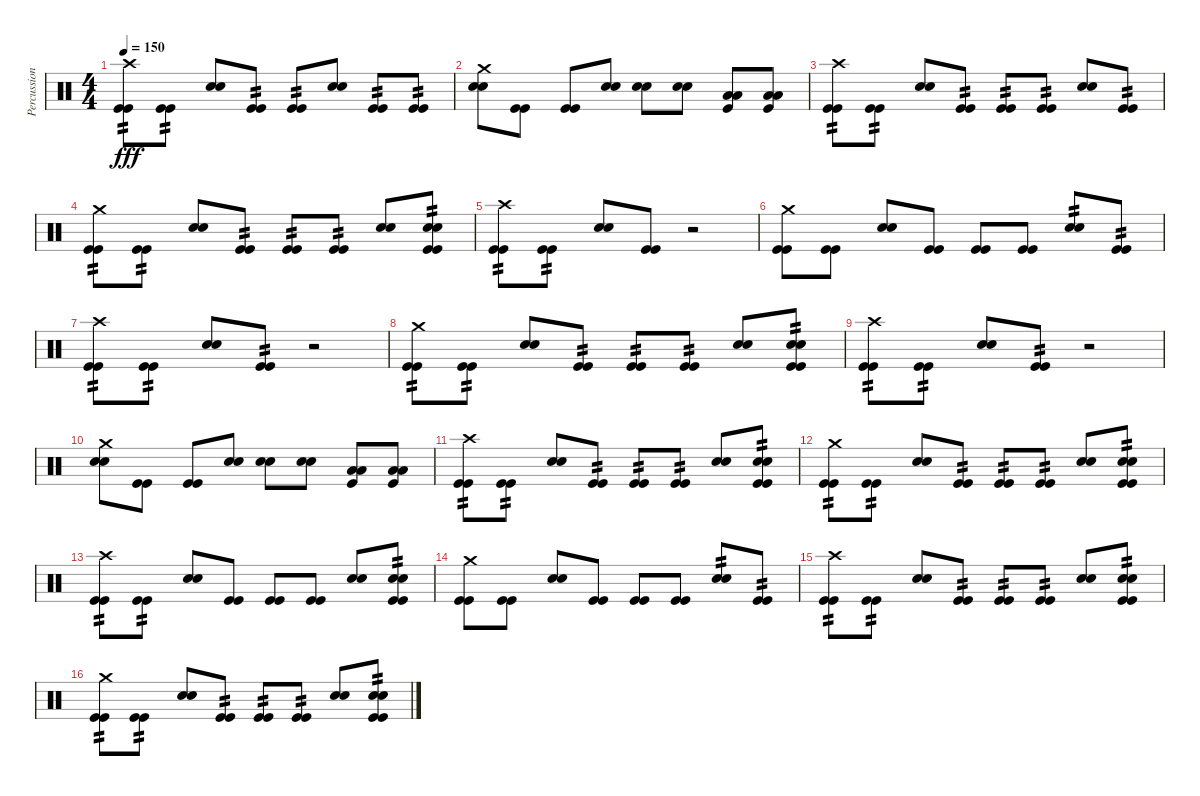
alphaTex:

\track ("Percussion" "Percussion") {instrument percussion}
\staff {score}
\articulation defaults
\ts (4 4)
\tempo 150
\clef neutral
\ks c
("Crash high (hit)" "Kick (hit)" "Kick (hit)").8{tp 2 dy fff} ("Kick (hit)" "Kick (hit)").8{tp 2} ("Snare (hit) 2" "Snare (hit) 2").8 ("Kick (hit)" "Kick (hit)").8{tp 2} ("Kick (hit)" "Kick (hit)").8{tp 2} ("Snare (hit) 2" "Snare (hit) 2").8 ("Kick (hit)" "Kick (hit)").8{tp 2} ("Kick (hit)" "Kick (hit)").8{tp 2} |
("Crash medium (hit)" "Snare (hit) 2" "Snare (hit) 2").8 ("Kick (hit)" "Kick (hit)").8 ("Kick (hit)" "Kick (hit)").8 ("Snare (hit) 2" "Snare (hit) 2").8 ("Snare (hit) 2" "Snare (hit) 2").8 ("Snare (hit) 2" "Snare (hit) 2").8 ("Low Floor Tom (hit)" "Low Floor Tom (hit)" "Kick (hit)").8 ("Low Floor Tom (hit)" "Low Floor Tom (hit)" "Kick (hit)").8 |
("Crash high (hit)" "Kick (hit)" "Kick (hit)").8{tp 2} ("Kick (hit)" "Kick (hit)").8{tp 2} ("Snare (hit) 2" "Snare (hit) 2").8 ("Kick (hit)" "Kick (hit)").8{tp 2} ("Kick (hit)" "Kick (hit)").8{tp 2} ("Kick (hit)" "Kick (hit)").8{tp 2} ("Snare (hit) 2" "Snare (hit) 2").8 ("Kick (hit)" "Kick (hit)").8{tp 2} |
("Crash medium (hit)" "Kick (hit)" "Kick (hit)").8{tp 2} ("Kick (hit)" "Kick (hit)").8{tp 2} ("Snare (hit) 2" "Snare (hit) 2").8 ("Kick (hit)" "Kick (hit)").8{tp 2} ("Kick (hit)" "Kick (hit)").8{tp 2} ("Kick (hit)" "Kick (hit)").8{tp 2} ("Snare (hit) 2" "Snare (hit) 2").8 ("Snare (hit) 2" "Snare (hit) 2" "Kick (hit)" "Kick (hit)").8{tp 2} |
("Crash high (hit)" "Kick (hit)" "Kick (hit)").8{tp 2} ("Kick (hit)" "Kick (hit)").8{tp 2} ("Snare (hit) 2" "Snare (hit) 2").8 ("Kick (hit)" "Kick (hit)").8 r.2 |
("Crash medium (hit)" "Kick (hit)" "Kick (hit)").8 ("Kick (hit)" "Kick (hit)").8 ("Snare (hit) 2" "Snare (hit) 2").8 ("Kick (hit)" "Kick (hit)").8 ("Kick (hit)" "Kick (hit)").8 ("Kick (hit)" "Kick (hit)").8 ("Snare (hit) 2" "Snare (hit) 2").8{tp 2} ("Kick (hit)" "Kick (hit)").8{tp 2} |
("Crash high (hit)" "Kick (hit)" "Kick (hit)").8{tp 2} ("Kick (hit)" "Kick (hit)").8{tp 2} ("Snare (hit) 2" "Snare (hit) 2").8 ("Kick (hit)" "Kick (hit)").8{tp 2} r.2 |
("Crash medium (hit)" "Kick (hit)" "Kick (hit)").8{tp 2} ("Kick (hit)" "Kick (hit)").8{tp 2} ("Snare (hit) 2" "Snare (hit) 2").8 ("Kick (hit)" "Kick (hit)").8{tp 2} ("Kick (hit)" "Kick (hit)").8{tp 2} ("Kick (hit)" "Kick (hit)").8{tp 2} ("Snare (hit) 2" "Snare (hit) 2").8 ("Snare (hit) 2" "Snare (hit) 2" "Kick (hit)" "Kick (hit)").8{tp 2} |
("Crash high (hit)" "Kick (hit)" "Kick (hit)").8{tp 2} ("Kick (hit)" "Kick (hit)").8{tp 2} ("Snare (hit) 2" "Snare (hit) 2").8 ("Kick (hit)" "Kick (hit)").8{tp 2} r.2 |
("Crash medium (hit)" "Snare (hit) 2" "Snare (hit) 2").8 ("Kick (hit)" "Kick (hit)").8 ("Kick (hit)" "Kick (hit)").8 ("Snare (hit) 2" "Snare (hit) 2").8 ("Snare (hit) 2" "Snare (hit) 2").8 ("Snare (hit) 2" "Snare (hit) 2").8 ("Low Floor Tom (hit)" "Low Floor Tom (hit)" "Kick (hit)").8 ("Low Floor Tom (hit)" "Low Floor Tom (hit)" "Kick (hit)").8 |
("Crash high (hit)" "Kick (hit)" "Kick (hit)").8{tp 2} ("Kick (hit)" "Kick (hit)").8{tp 2} ("Snare (hit) 2" "Snare (hit) 2").8 ("Kick (hit)" "Kick (hit)").8{tp 2} ("Kick (hit)" "Kick (hit)").8{tp 2} ("Kick (hit)" "Kick (hit)").8{tp 2} ("Snare (hit) 2" "Snare (hit) 2").8 ("Snare (hit) 2" "Snare (hit) 2" "Kick (hit)" "Kick (hit)").8{tp 2} |
("Crash medium (hit)" "Kick (hit)" "Kick (hit)").8{tp 2} ("Kick (hit)" "Kick (hit)").8{tp 2} ("Snare (hit) 2" "Snare (hit) 2").8 ("Kick (hit)" "Kick (hit)").8{tp 2} ("Kick (hit)" "Kick (hit)").8{tp 2} ("Kick (hit)" "Kick (hit)").8{tp 2} ("Snare (hit) 2" "Snare (hit) 2").8 ("Snare (hit) 2" "Snare (hit) 2" "Kick (hit)" "Kick (hit)").8{tp 2} |
("Crash high (hit)" "Kick (hit)" "Kick (hit)").8{tp 2} ("Kick (hit)" "Kick (hit)").8{tp 2} ("Snare (hit) 2" "Snare (hit) 2").8 ("Kick (hit)" "Kick (hit)").8 ("Kick (hit)" "Kick (hit)").8 ("Kick (hit)" "Kick (hit)").8 ("Snare (hit) 2" "Snare (hit) 2").8 ("Snare (hit) 2" "Snare (hit) 2" "Kick (hit)" "Kick (hit)").8{tp 2} |
("Crash medium (hit)" "Kick (hit)" "Kick (hit)").8 ("Kick (hit)" "Kick (hit)").8 ("Snare (hit) 2" "Snare (hit) 2").8 ("Kick (hit)" "Kick (hit)").8 ("Kick (hit)" "Kick (hit)").8 ("Kick (hit)" "Kick (hit)").8 ("Snare (hit) 2" "Snare (hit) 2").8{tp 2} ("Kick (hit)" "Kick (hit)").8{tp 2} |
("Crash high (hit)" "Kick (hit)" "Kick (hit)").8{tp 2} ("Kick (hit)" "Kick (hit)").8{tp 2} ("Snare (hit) 2" "Snare (hit) 2").8 ("Kick (hit)" "Kick (hit)").8{tp 2} ("Kick (hit)" "Kick (hit)").8{tp 2} ("Kick (hit)" "Kick (hit)").8{tp 2} ("Snare (hit) 2" "Snare (hit) 2").8 ("Snare (hit) 2" "Snare (hit) 2" "Kick (hit)" "Kick (hit)").8{tp 2} |
("Crash medium (hit)" "Kick (hit)" "Kick (hit)").8{tp 2} ("Kick (hit)" "Kick (hit)").8{tp 2} ("Snare (hit) 2" "Snare (hit) 2").8 ("Kick (hit)" "Kick (hit)").8{tp 2} ("Kick (hit)" "Kick (hit)").8{tp 2} ("Kick (hit)" "Kick (hit)").8{tp 2} ("Snare (hit) 2" "Snare (hit) 2").8 ("Snare (hit) 2" "Snare (hit) 2" "Kick (hit)" "Kick (hit)").8{tp 2}
